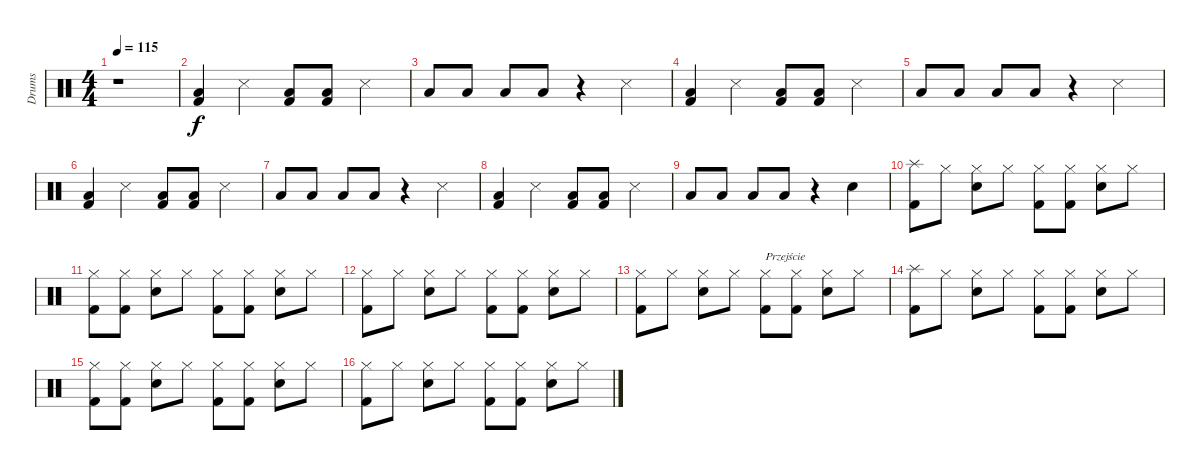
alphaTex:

\track ("Drums" "Drums") {instrument percussion}
\staff {score}
\articulation defaults
\ts (4 4)
\tempo 115
\clef neutral
\ks c
r.1{dy f} |
("Low Floor Tom (hit)" "Kick (hit) 2").4 "Snare (side stick) 3".4 ("Low Floor Tom (hit)" "Kick (hit) 2").8 ("Low Floor Tom (hit)" "Kick (hit) 2").8 "Snare (side stick) 3".4 |
"Low Floor Tom (hit)".8 "Low Floor Tom (hit)".8 "Low Floor Tom (hit)".8 "Low Floor Tom (hit)".8 r.4 "Snare (side stick) 3".4 |
("Low Floor Tom (hit)" "Kick (hit) 2").4 "Snare (side stick) 3".4 ("Low Floor Tom (hit)" "Kick (hit) 2").8 ("Low Floor Tom (hit)" "Kick (hit) 2").8 "Snare (side stick) 3".4 |
"Low Floor Tom (hit)".8 "Low Floor Tom (hit)".8 "Low Floor Tom (hit)".8 "Low Floor Tom (hit)".8 r.4 "Snare (side stick) 3".4 |
("Low Floor Tom (hit)" "Kick (hit) 2").4 "Snare (side stick) 3".4 ("Low Floor Tom (hit)" "Kick (hit) 2").8 ("Low Floor Tom (hit)" "Kick (hit) 2").8 "Snare (side stick) 3".4 |
"Low Floor Tom (hit)".8 "Low Floor Tom (hit)".8 "Low Floor Tom (hit)".8 "Low Floor Tom (hit)".8 r.4 "Snare (side stick) 3".4 |
("Low Floor Tom (hit)" "Kick (hit) 2").4 "Snare (side stick) 3".4 ("Low Floor Tom (hit)" "Kick (hit) 2").8 ("Low Floor Tom (hit)" "Kick (hit) 2").8 "Snare (side stick) 3".4 |
"Low Floor Tom (hit)".8 "Low Floor Tom (hit)".8 "Low Floor Tom (hit)".8 "Low Floor Tom (hit)".8 r.4 "Electric Snare (hit)".4 |
("Splash (hit)" "Kick (hit) 2").8 "Hi-Hat (closed)".8 ("Hi-Hat (closed)" "Electric Snare (hit)").8 "Hi-Hat (closed)".8 ("Hi-Hat (closed)" "Kick (hit) 2").8 ("Hi-Hat (closed)" "Kick (hit) 2").8 ("Hi-Hat (closed)" "Electric Snare (hit)").8 "Hi-Hat (closed)".8 |
("Hi-Hat (closed)" "Kick (hit) 2").8 ("Hi-Hat (closed)" "Kick (hit) 2").8 ("Hi-Hat (closed)" "Electric Snare (hit)").8 "Hi-Hat (closed)".8 ("Hi-Hat (closed)" "Kick (hit) 2").8 ("Hi-Hat (closed)" "Kick (hit) 2").8 ("Hi-Hat (closed)" "Electric Snare (hit)").8 "Hi-Hat (closed)".8 |
("Hi-Hat (closed)" "Kick (hit) 2").8 "Hi-Hat (closed)".8 ("Hi-Hat (closed)" "Electric Snare (hit)").8 "Hi-Hat (closed)".8 ("Hi-Hat (closed)" "Kick (hit) 2").8 ("Hi-Hat (closed)" "Kick (hit) 2").8 ("Hi-Hat (closed)" "Electric Snare (hit)").8 "Hi-Hat (closed)".8 |
("Hi-Hat (closed)" "Kick (hit) 2").8 "Hi-Hat (closed)".8 ("Hi-Hat (closed)" "Electric Snare (hit)").8 "Hi-Hat (closed)".8 ("Hi-Hat (closed)" "Kick (hit) 2").8{txt "Przejście"} ("Hi-Hat (closed)" "Kick (hit) 2").8 ("Hi-Hat (closed)" "Electric Snare (hit)").8 "Hi-Hat (closed)".8 |
("Splash (hit)" "Kick (hit) 2").8 "Hi-Hat (closed)".8 ("Hi-Hat (closed)" "Electric Snare (hit)").8 "Hi-Hat (closed)".8 ("Hi-Hat (closed)" "Kick (hit) 2").8 ("Hi-Hat (closed)" "Kick (hit) 2").8 ("Hi-Hat (closed)" "Electric Snare (hit)").8 "Hi-Hat (closed)".8 |
("Hi-Hat (closed)" "Kick (hit) 2").8 ("Hi-Hat (closed)" "Kick (hit) 2").8 ("Hi-Hat (closed)" "Electric Snare (hit)").8 "Hi-Hat (closed)".8 ("Hi-Hat (closed)" "Kick (hit) 2").8 ("Hi-Hat (closed)" "Kick (hit) 2").8 ("Hi-Hat (closed)" "Electric Snare (hit)").8 "Hi-Hat (closed)".8 |
("Hi-Hat (closed)" "Kick (hit) 2").8 "Hi-Hat (closed)".8 ("Hi-Hat (closed)" "Electric Snare (hit)").8 "Hi-Hat (closed)".8 ("Hi-Hat (closed)" "Kick (hit) 2").8 ("Hi-Hat (closed)" "Kick (hit) 2").8 ("Hi-Hat (closed)" "Electric Snare (hit)").8 "Hi-Hat (closed)".8
